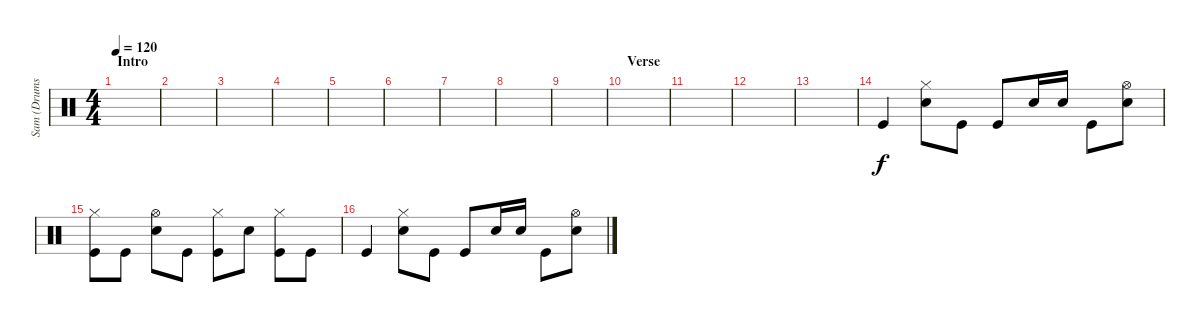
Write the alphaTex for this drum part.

\track ("Sam (Drums)" "Sam (Drums") {instrument percussion}
\staff {score}
\articulation defaults
\ts (4 4)
\section ("" "Intro")
\tempo 120
\clef neutral
\ks c
|
|
|
|
|
|
|
|
|
\section ("" "Verse")
|
|
|
|
"Kick (hit)".4 ("Hi-Hat (closed)" "Snare (hit) 2").8 "Kick (hit)".8 "Kick (hit)".8 "Snare (hit) 2".16 "Snare (hit) 2".16 "Kick (hit)".8 ("Hi-Hat (open)" "Snare (hit) 2").8 |
("Hi-Hat (closed)" "Kick (hit)").8 "Kick (hit)".8 ("Hi-Hat (open)" "Snare (hit) 2").8 "Kick (hit)".8 ("Hi-Hat (closed)" "Kick (hit)").8 "Snare (hit) 2".8 ("Hi-Hat (closed)" "Kick (hit)").8 "Kick (hit)".8 |
"Kick (hit)".4 ("Hi-Hat (closed)" "Snare (hit) 2").8 "Kick (hit)".8 "Kick (hit)".8 "Snare (hit) 2".16 "Snare (hit) 2".16 "Kick (hit)".8 ("Hi-Hat (open)" "Snare (hit) 2").8
